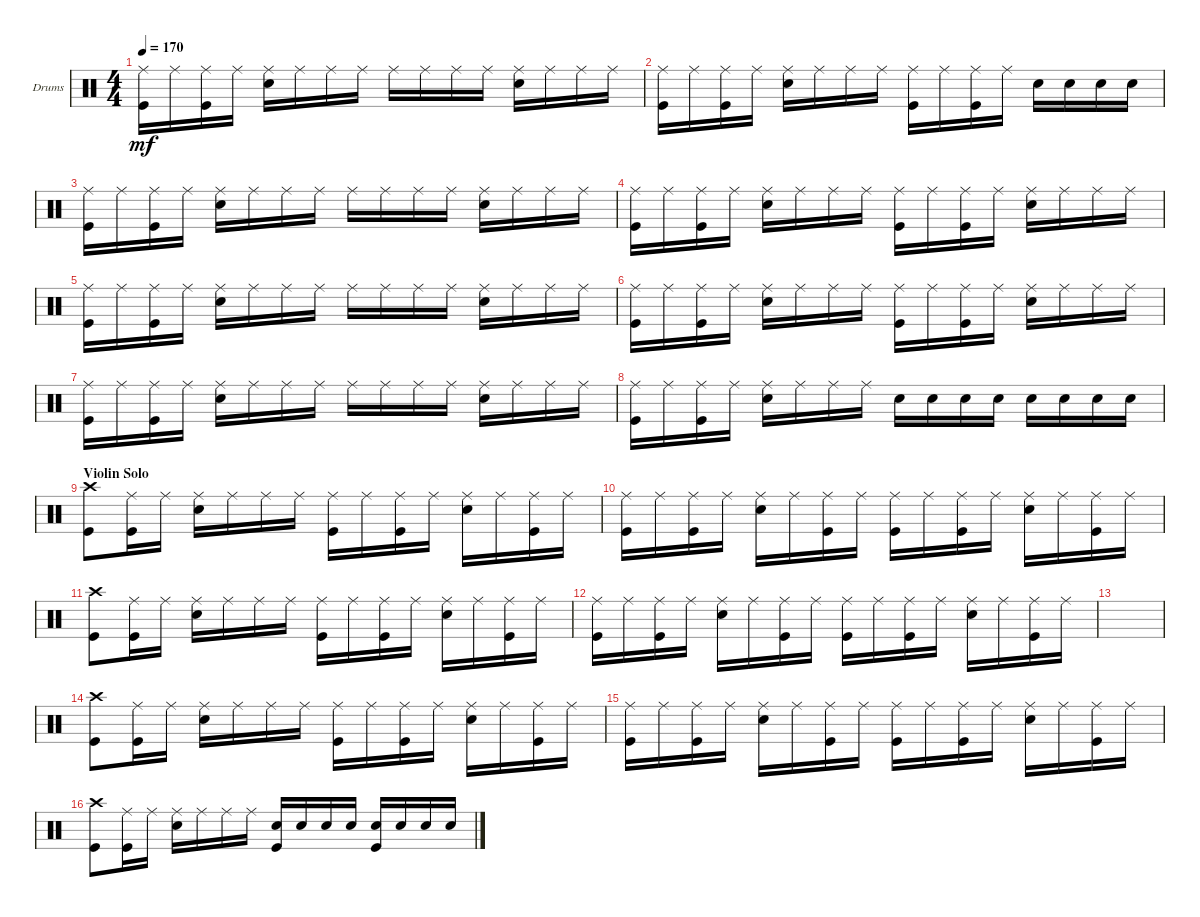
\defaultSystemsLayout 4
\bracketExtendMode groupsimilarinstruments
\firstSystemTrackNameOrientation horizontal
\otherSystemsTrackNameOrientation horizontal
\track ("Drumkit" "Drums") {instrument percussion}
\staff {score}
\articulation defaults
\ts (4 4)
\tempo 170
\clef neutral
\ks c
("Ride (middle)" "Kick (hit)").16{dy mf} "Ride (middle)".16 ("Ride (middle)" "Kick (hit)").16 "Ride (middle)".16 ("Ride (middle)" "Snare (hit) 2").16 "Ride (middle)".16 "Ride (middle)".16 "Ride (middle)".16 "Ride (middle)".16 "Ride (middle)".16 "Ride (middle)".16 "Ride (middle)".16 ("Ride (middle)" "Snare (hit) 2").16 "Ride (middle)".16 "Ride (middle)".16 "Ride (middle)".16 |
("Ride (middle)" "Kick (hit)").16 "Ride (middle)".16 ("Ride (middle)" "Kick (hit)").16 "Ride (middle)".16 ("Ride (middle)" "Snare (hit) 2").16 "Ride (middle)".16 "Ride (middle)".16 "Ride (middle)".16 ("Ride (middle)" "Kick (hit)").16 "Ride (middle)".16 ("Ride (middle)" "Kick (hit)").16 "Ride (middle)".16 "Snare (hit) 2".16 "Snare (hit) 2".16 "Snare (hit) 2".16 "Snare (hit) 2".16 |
("Ride (middle)" "Kick (hit)").16 "Ride (middle)".16 ("Ride (middle)" "Kick (hit)").16 "Ride (middle)".16 ("Ride (middle)" "Snare (hit) 2").16 "Ride (middle)".16 "Ride (middle)".16 "Ride (middle)".16 "Ride (middle)".16 "Ride (middle)".16 "Ride (middle)".16 "Ride (middle)".16 ("Ride (middle)" "Snare (hit) 2").16 "Ride (middle)".16 "Ride (middle)".16 "Ride (middle)".16 |
("Ride (middle)" "Kick (hit)").16 "Ride (middle)".16 ("Ride (middle)" "Kick (hit)").16 "Ride (middle)".16 ("Ride (middle)" "Snare (hit) 2").16 "Ride (middle)".16 "Ride (middle)".16 "Ride (middle)".16 ("Ride (middle)" "Kick (hit)").16 "Ride (middle)".16 ("Ride (middle)" "Kick (hit)").16 "Ride (middle)".16 ("Ride (middle)" "Snare (hit) 2").16 "Ride (middle)".16 "Ride (middle)".16 "Ride (middle)".16 |
("Ride (middle)" "Kick (hit)").16 "Ride (middle)".16 ("Ride (middle)" "Kick (hit)").16 "Ride (middle)".16 ("Ride (middle)" "Snare (hit) 2").16 "Ride (middle)".16 "Ride (middle)".16 "Ride (middle)".16 "Ride (middle)".16 "Ride (middle)".16 "Ride (middle)".16 "Ride (middle)".16 ("Ride (middle)" "Snare (hit) 2").16 "Ride (middle)".16 "Ride (middle)".16 "Ride (middle)".16 |
("Ride (middle)" "Kick (hit)").16 "Ride (middle)".16 ("Ride (middle)" "Kick (hit)").16 "Ride (middle)".16 ("Ride (middle)" "Snare (hit) 2").16 "Ride (middle)".16 "Ride (middle)".16 "Ride (middle)".16 ("Ride (middle)" "Kick (hit)").16 "Ride (middle)".16 ("Ride (middle)" "Kick (hit)").16 "Ride (middle)".16 ("Ride (middle)" "Snare (hit) 2").16 "Ride (middle)".16 "Ride (middle)".16 "Ride (middle)".16 |
("Ride (middle)" "Kick (hit)").16 "Ride (middle)".16 ("Ride (middle)" "Kick (hit)").16 "Ride (middle)".16 ("Ride (middle)" "Snare (hit) 2").16 "Ride (middle)".16 "Ride (middle)".16 "Ride (middle)".16 "Ride (middle)".16 "Ride (middle)".16 "Ride (middle)".16 "Ride (middle)".16 ("Ride (middle)" "Snare (hit) 2").16 "Ride (middle)".16 "Ride (middle)".16 "Ride (middle)".16 |
("Kick (hit)" "Ride (middle)").16 "Ride (middle)".16 ("Ride (middle)" "Kick (hit)").16 "Ride (middle)".16 ("Ride (middle)" "Snare (hit) 2").16 "Ride (middle)".16 "Ride (middle)".16 "Ride (middle)".16 "Snare (hit) 2".16 "Snare (hit) 2".16 "Snare (hit) 2".16 "Snare (hit) 2".16 "Snare (hit) 2".16 "Snare (hit) 2".16 "Snare (hit) 2".16 "Snare (hit) 2".16 |
\section ("" "Violin Solo")
("Crash high (hit)" "Kick (hit)").8 ("Kick (hit)" "Ride (middle)").16 "Ride (middle)".16 ("Ride (middle)" "Snare (hit) 2").16 "Ride (middle)".16 "Ride (middle)".16 "Ride (middle)".16 ("Kick (hit)" "Ride (middle)").16 "Ride (middle)".16 ("Kick (hit)" "Ride (middle)").16 "Ride (middle)".16 ("Ride (middle)" "Snare (hit) 2").16 "Ride (middle)".16 ("Kick (hit)" "Ride (middle)").16 "Ride (middle)".16 |
("Ride (middle)" "Kick (hit)").16 "Ride (middle)".16 ("Kick (hit)" "Ride (middle)").16 "Ride (middle)".16 ("Ride (middle)" "Snare (hit) 2").16 "Ride (middle)".16 ("Ride (middle)" "Kick (hit)").16 "Ride (middle)".16 ("Kick (hit)" "Ride (middle)").16 "Ride (middle)".16 ("Ride (middle)" "Kick (hit)").16 "Ride (middle)".16 ("Ride (middle)" "Snare (hit) 2").16 "Ride (middle)".16 ("Ride (middle)" "Kick (hit)").16 "Ride (middle)".16 |
("Crash high (hit)" "Kick (hit)").8 ("Kick (hit)" "Ride (middle)").16 "Ride (middle)".16 ("Ride (middle)" "Snare (hit) 2").16 "Ride (middle)".16 "Ride (middle)".16 "Ride (middle)".16 ("Kick (hit)" "Ride (middle)").16 "Ride (middle)".16 ("Kick (hit)" "Ride (middle)").16 "Ride (middle)".16 ("Ride (middle)" "Snare (hit) 2").16 "Ride (middle)".16 ("Kick (hit)" "Ride (middle)").16 "Ride (middle)".16 |
("Ride (middle)" "Kick (hit)").16 "Ride (middle)".16 ("Kick (hit)" "Ride (middle)").16 "Ride (middle)".16 ("Ride (middle)" "Snare (hit) 2").16 "Ride (middle)".16 ("Ride (middle)" "Kick (hit)").16 "Ride (middle)".16 ("Kick (hit)" "Ride (middle)").16 "Ride (middle)".16 ("Ride (middle)" "Kick (hit)").16 "Ride (middle)".16 ("Ride (middle)" "Snare (hit) 2").16 "Ride (middle)".16 ("Ride (middle)" "Kick (hit)").16 "Ride (middle)".16 |
|
("Crash high (hit)" "Kick (hit)").8 ("Kick (hit)" "Ride (middle)").16 "Ride (middle)".16 ("Ride (middle)" "Snare (hit) 2").16 "Ride (middle)".16 "Ride (middle)".16 "Ride (middle)".16 ("Kick (hit)" "Ride (middle)").16 "Ride (middle)".16 ("Kick (hit)" "Ride (middle)").16 "Ride (middle)".16 ("Ride (middle)" "Snare (hit) 2").16 "Ride (middle)".16 ("Kick (hit)" "Ride (middle)").16 "Ride (middle)".16 |
("Ride (middle)" "Kick (hit)").16 "Ride (middle)".16 ("Kick (hit)" "Ride (middle)").16 "Ride (middle)".16 ("Ride (middle)" "Snare (hit) 2").16 "Ride (middle)".16 ("Ride (middle)" "Kick (hit)").16 "Ride (middle)".16 ("Kick (hit)" "Ride (middle)").16 "Ride (middle)".16 ("Ride (middle)" "Kick (hit)").16 "Ride (middle)".16 ("Ride (middle)" "Snare (hit) 2").16 "Ride (middle)".16 ("Ride (middle)" "Kick (hit)").16 "Ride (middle)".16 |
("Crash high (hit)" "Kick (hit)").8 ("Kick (hit)" "Ride (middle)").16 "Ride (middle)".16 ("Ride (middle)" "Snare (hit) 2").16 "Ride (middle)".16 "Ride (middle)".16 "Ride (middle)".16 ("Kick (hit)" "Snare (hit) 2").16 "Snare (hit) 2".16 "Snare (hit) 2".16 "Snare (hit) 2".16 ("Snare (hit) 2" "Kick (hit)").16 "Snare (hit) 2".16 "Snare (hit) 2".16 "Snare (hit) 2".16
